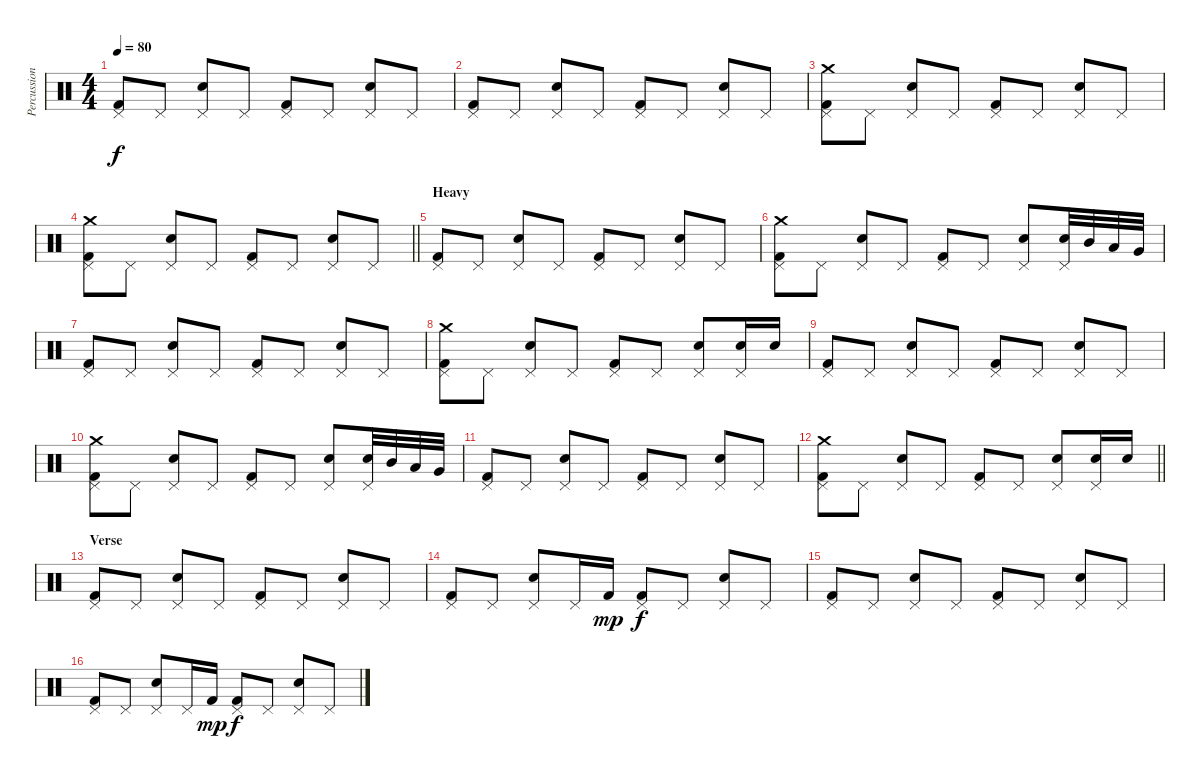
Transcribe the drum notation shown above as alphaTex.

\track ("Percussion" "Percussion") {instrument percussion}
\staff {score}
\articulation defaults
\ts (4 4)
\tempo 80
\clef neutral
\ks c
("Kick (hit) 2" "Pedal Hi-Hat (hit)").8{dy f} "Pedal Hi-Hat (hit)".8 ("Electric Snare (hit)" "Pedal Hi-Hat (hit)").8 "Pedal Hi-Hat (hit)".8 ("Kick (hit) 2" "Pedal Hi-Hat (hit)").8 "Pedal Hi-Hat (hit)".8 ("Electric Snare (hit)" "Pedal Hi-Hat (hit)").8 "Pedal Hi-Hat (hit)".8 |
("Kick (hit) 2" "Pedal Hi-Hat (hit)").8 "Pedal Hi-Hat (hit)".8 ("Electric Snare (hit)" "Pedal Hi-Hat (hit)").8 "Pedal Hi-Hat (hit)".8 ("Kick (hit) 2" "Pedal Hi-Hat (hit)").8 "Pedal Hi-Hat (hit)".8 ("Electric Snare (hit)" "Pedal Hi-Hat (hit)").8 "Pedal Hi-Hat (hit)".8 |
("Kick (hit) 2" "Pedal Hi-Hat (hit)" "Crash medium (hit)").8 "Pedal Hi-Hat (hit)".8 ("Electric Snare (hit)" "Pedal Hi-Hat (hit)").8 "Pedal Hi-Hat (hit)".8 ("Kick (hit) 2" "Pedal Hi-Hat (hit)").8 "Pedal Hi-Hat (hit)".8 ("Electric Snare (hit)" "Pedal Hi-Hat (hit)").8 "Pedal Hi-Hat (hit)".8 |
\barLineRight lightlight
("Pedal Hi-Hat (hit)" "Crash medium (hit)" "Kick (hit) 2").8 "Pedal Hi-Hat (hit)".8 ("Electric Snare (hit)" "Pedal Hi-Hat (hit)").8 "Pedal Hi-Hat (hit)".8 ("Kick (hit) 2" "Pedal Hi-Hat (hit)").8 "Pedal Hi-Hat (hit)".8 ("Electric Snare (hit)" "Pedal Hi-Hat (hit)").8 "Pedal Hi-Hat (hit)".8 |
\section ("" "Heavy")
("Kick (hit) 2" "Pedal Hi-Hat (hit)").8 "Pedal Hi-Hat (hit)".8 ("Pedal Hi-Hat (hit)" "Electric Snare (hit)").8 "Pedal Hi-Hat (hit)".8 ("Pedal Hi-Hat (hit)" "Kick (hit) 2").8 "Pedal Hi-Hat (hit)".8 ("Pedal Hi-Hat (hit)" "Electric Snare (hit)").8 "Pedal Hi-Hat (hit)".8 |
("Pedal Hi-Hat (hit)" "Kick (hit) 2" "Crash medium (hit)").8 "Pedal Hi-Hat (hit)".8 ("Electric Snare (hit)" "Pedal Hi-Hat (hit)").8 "Pedal Hi-Hat (hit)".8 ("Pedal Hi-Hat (hit)" "Kick (hit) 2").8 "Pedal Hi-Hat (hit)".8 ("Pedal Hi-Hat (hit)" "Electric Snare (hit)").8 ("Pedal Hi-Hat (hit)" "Electric Snare (hit)").32 "Mid Tom (hit)".32 "Low Tom (hit)".32 "Very Low Tom (hit)".32 |
("Pedal Hi-Hat (hit)" "Kick (hit) 2").8 "Pedal Hi-Hat (hit)".8 ("Pedal Hi-Hat (hit)" "Electric Snare (hit)").8 "Pedal Hi-Hat (hit)".8 ("Kick (hit) 2" "Pedal Hi-Hat (hit)").8 "Pedal Hi-Hat (hit)".8 ("Electric Snare (hit)" "Pedal Hi-Hat (hit)").8 "Pedal Hi-Hat (hit)".8 |
("Kick (hit) 2" "Pedal Hi-Hat (hit)" "Crash medium (hit)").8 "Pedal Hi-Hat (hit)".8 ("Electric Snare (hit)" "Pedal Hi-Hat (hit)").8 "Pedal Hi-Hat (hit)".8 ("Kick (hit) 2" "Pedal Hi-Hat (hit)").8 "Pedal Hi-Hat (hit)".8 ("Electric Snare (hit)" "Pedal Hi-Hat (hit)").8 ("Electric Snare (hit)" "Pedal Hi-Hat (hit)").16 "Electric Snare (hit)".16 |
("Kick (hit) 2" "Pedal Hi-Hat (hit)").8 "Pedal Hi-Hat (hit)".8 ("Pedal Hi-Hat (hit)" "Electric Snare (hit)").8 "Pedal Hi-Hat (hit)".8 ("Pedal Hi-Hat (hit)" "Kick (hit) 2").8 "Pedal Hi-Hat (hit)".8 ("Pedal Hi-Hat (hit)" "Electric Snare (hit)").8 "Pedal Hi-Hat (hit)".8 |
("Pedal Hi-Hat (hit)" "Kick (hit) 2" "Crash medium (hit)").8 "Pedal Hi-Hat (hit)".8 ("Electric Snare (hit)" "Pedal Hi-Hat (hit)").8 "Pedal Hi-Hat (hit)".8 ("Pedal Hi-Hat (hit)" "Kick (hit) 2").8 "Pedal Hi-Hat (hit)".8 ("Pedal Hi-Hat (hit)" "Electric Snare (hit)").8 ("Pedal Hi-Hat (hit)" "Electric Snare (hit)").32 "Mid Tom (hit)".32 "Low Tom (hit)".32 "Very Low Tom (hit)".32 |
("Pedal Hi-Hat (hit)" "Kick (hit) 2").8 "Pedal Hi-Hat (hit)".8 ("Pedal Hi-Hat (hit)" "Electric Snare (hit)").8 "Pedal Hi-Hat (hit)".8 ("Kick (hit) 2" "Pedal Hi-Hat (hit)").8 "Pedal Hi-Hat (hit)".8 ("Electric Snare (hit)" "Pedal Hi-Hat (hit)").8 "Pedal Hi-Hat (hit)".8 |
\barLineRight lightlight
("Kick (hit) 2" "Pedal Hi-Hat (hit)" "Crash medium (hit)").8 "Pedal Hi-Hat (hit)".8 ("Electric Snare (hit)" "Pedal Hi-Hat (hit)").8 "Pedal Hi-Hat (hit)".8 ("Kick (hit) 2" "Pedal Hi-Hat (hit)").8 "Pedal Hi-Hat (hit)".8 ("Electric Snare (hit)" "Pedal Hi-Hat (hit)").8 ("Electric Snare (hit)" "Pedal Hi-Hat (hit)").16 "Electric Snare (hit)".16 |
\section ("" "Verse")
("Pedal Hi-Hat (hit)" "Kick (hit) 2").8 "Pedal Hi-Hat (hit)".8 ("Pedal Hi-Hat (hit)" "Electric Snare (hit)").8 "Pedal Hi-Hat (hit)".8 ("Kick (hit) 2" "Pedal Hi-Hat (hit)").8 "Pedal Hi-Hat (hit)".8 ("Electric Snare (hit)" "Pedal Hi-Hat (hit)").8 "Pedal Hi-Hat (hit)".8 |
("Pedal Hi-Hat (hit)" "Kick (hit) 2").8 "Pedal Hi-Hat (hit)".8 ("Pedal Hi-Hat (hit)" "Electric Snare (hit)").8 "Pedal Hi-Hat (hit)".16 "Kick (hit) 2".16{dy mp} ("Kick (hit) 2" "Pedal Hi-Hat (hit)").8{dy f} "Pedal Hi-Hat (hit)".8 ("Electric Snare (hit)" "Pedal Hi-Hat (hit)").8 "Pedal Hi-Hat (hit)".8 |
("Pedal Hi-Hat (hit)" "Kick (hit) 2").8 "Pedal Hi-Hat (hit)".8 ("Pedal Hi-Hat (hit)" "Electric Snare (hit)").8 "Pedal Hi-Hat (hit)".8 ("Kick (hit) 2" "Pedal Hi-Hat (hit)").8 "Pedal Hi-Hat (hit)".8 ("Electric Snare (hit)" "Pedal Hi-Hat (hit)").8 "Pedal Hi-Hat (hit)".8 |
("Pedal Hi-Hat (hit)" "Kick (hit) 2").8 "Pedal Hi-Hat (hit)".8 ("Pedal Hi-Hat (hit)" "Electric Snare (hit)").8 "Pedal Hi-Hat (hit)".16 "Kick (hit) 2".16{dy mp} ("Kick (hit) 2" "Pedal Hi-Hat (hit)").8{dy f} "Pedal Hi-Hat (hit)".8 ("Electric Snare (hit)" "Pedal Hi-Hat (hit)").8 "Pedal Hi-Hat (hit)".8
